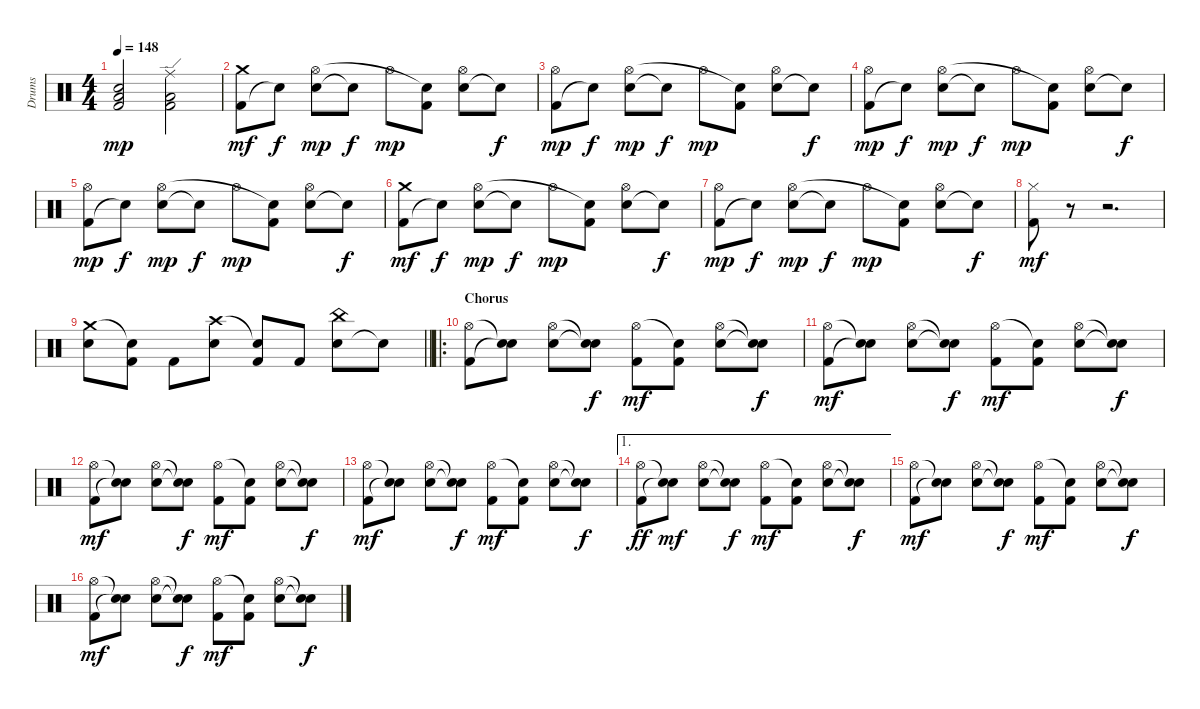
\track ("Drums" "Drums") {instrument percussion}
\staff {score}
\articulation defaults
\ts (4 4)
\tempo 148
\clef neutral
\ks c
("Kick (hit) 2" "Low Floor Tom (hit)" "Hand Clap (hit)").2{dy mp} ("Kick (hit) 2" "Low Floor Tom (hit)" "Ride (edge)").2 |
("Kick (hit) 2" "Crash medium (hit)").8{dy mf} "Snare (hit)"{t}.8{dy f} ("Snare (hit) 2" "Hi-Hat (open)").8{dy mp} "Snare (hit)"{t}.8{dy f} "Hi-Hat (open)".8{dy mp} ("Kick (hit) 2" "Snare (hit)"{t}).8 ("Snare (hit) 2" "Hi-Hat (open)").8 "Snare (hit)"{t}.8{dy f} |
("Kick (hit) 2" "Hi-Hat (open)").8{dy mp} "Snare (hit)"{t}.8{dy f} ("Snare (hit) 2" "Hi-Hat (open)").8{dy mp} "Snare (hit)"{t}.8{dy f} "Hi-Hat (open)".8{dy mp} ("Kick (hit) 2" "Snare (hit)"{t}).8 ("Snare (hit) 2" "Hi-Hat (open)").8 "Snare (hit)"{t}.8{dy f} |
("Kick (hit) 2" "Hi-Hat (open)").8{dy mp} "Snare (hit)"{t}.8{dy f} ("Snare (hit) 2" "Hi-Hat (open)").8{dy mp} "Snare (hit)"{t}.8{dy f} "Hi-Hat (open)".8{dy mp} ("Kick (hit) 2" "Snare (hit)"{t}).8 ("Snare (hit) 2" "Hi-Hat (open)").8 "Snare (hit)"{t}.8{dy f} |
("Kick (hit) 2" "Hi-Hat (open)").8{dy mp} "Snare (hit)"{t}.8{dy f} ("Snare (hit) 2" "Hi-Hat (open)").8{dy mp} "Snare (hit)"{t}.8{dy f} "Hi-Hat (open)".8{dy mp} ("Kick (hit) 2" "Snare (hit)"{t}).8 ("Snare (hit) 2" "Hi-Hat (open)").8 "Snare (hit)"{t}.8{dy f} |
("Kick (hit) 2" "Crash medium (hit)").8{dy mf} "Snare (hit)"{t}.8{dy f} ("Snare (hit) 2" "Hi-Hat (open)").8{dy mp} "Snare (hit)"{t}.8{dy f} "Hi-Hat (open)".8{dy mp} ("Kick (hit) 2" "Snare (hit)"{t}).8 ("Snare (hit) 2" "Hi-Hat (open)").8 "Snare (hit)"{t}.8{dy f} |
("Kick (hit) 2" "Hi-Hat (open)").8{dy mp} "Snare (hit)"{t}.8{dy f} ("Snare (hit) 2" "Hi-Hat (open)").8{dy mp} "Snare (hit)"{t}.8{dy f} "Hi-Hat (open)".8{dy mp} ("Kick (hit) 2" "Snare (hit)"{t}).8 ("Snare (hit) 2" "Hi-Hat (open)").8 "Snare (hit)"{t}.8{dy f} |
("Kick (hit) 2" "Hi-Hat (closed)").8{dy mf} r.8 r.2{d} |
\barLineRight lightlight
("Snare (hit) 2" "Crash medium (hit)").8 ("Kick (hit) 2" "Snare (hit)"{t}).8 "Kick (hit) 2".8 ("Snare (hit) 2" "Crash high (hit)").8 ("Kick (hit) 2" "Snare (hit)"{t}).8 "Kick (hit) 2".8 ("Snare (hit) 2" "China (hit)").8 "Snare (hit)"{t}.8 |
\ro
\section ("" "Chorus")
("Kick (hit) 2" "Hi-Hat (open)").8 ("Snare (hit)"{t} "Snare (hit)"{t}).8 ("Snare (hit) 2" "Hi-Hat (open)").8 ("Snare (hit)"{t} "Snare (hit)"{t}).8{dy f} ("Kick (hit) 2" "Hi-Hat (open)").8{dy mf} ("Kick (hit) 2" "Snare (hit)"{t}).8 ("Snare (hit) 2" "Hi-Hat (open)").8 ("Snare (hit)"{t} "Snare (hit)"{t}).8{dy f} |
("Kick (hit) 2" "Hi-Hat (open)").8{dy mf} ("Snare (hit)"{t} "Snare (hit)"{t}).8 ("Snare (hit) 2" "Hi-Hat (open)").8 ("Snare (hit)"{t} "Snare (hit)"{t}).8{dy f} ("Kick (hit) 2" "Hi-Hat (open)").8{dy mf} ("Kick (hit) 2" "Snare (hit)"{t}).8 ("Snare (hit) 2" "Hi-Hat (open)").8 ("Snare (hit)"{t} "Snare (hit)"{t}).8{dy f} |
("Kick (hit) 2" "Hi-Hat (open)").8{dy mf} ("Snare (hit)"{t} "Snare (hit)"{t}).8 ("Snare (hit) 2" "Hi-Hat (open)").8 ("Snare (hit)"{t} "Snare (hit)"{t}).8{dy f} ("Kick (hit) 2" "Hi-Hat (open)").8{dy mf} ("Kick (hit) 2" "Snare (hit)"{t}).8 ("Snare (hit) 2" "Hi-Hat (open)").8 ("Snare (hit)"{t} "Snare (hit)"{t}).8{dy f} |
("Kick (hit) 2" "Hi-Hat (open)").8{dy mf} ("Snare (hit)"{t} "Snare (hit)"{t}).8 ("Snare (hit) 2" "Hi-Hat (open)").8 ("Snare (hit)"{t} "Snare (hit)"{t}).8{dy f} ("Kick (hit) 2" "Hi-Hat (open)").8{dy mf} ("Kick (hit) 2" "Snare (hit)"{t}).8 ("Snare (hit) 2" "Hi-Hat (open)").8 ("Snare (hit)"{t} "Snare (hit)"{t}).8{dy f} |
\ae 1
("Kick (hit) 2" "Hi-Hat (open)").8{dy ff} ("Snare (hit)"{t} "Snare (hit)"{t}).8{dy mf} ("Snare (hit) 2" "Hi-Hat (open)").8 ("Snare (hit)"{t} "Snare (hit)"{t}).8{dy f} ("Kick (hit) 2" "Hi-Hat (open)").8{dy mf} ("Kick (hit) 2" "Snare (hit)"{t}).8 ("Snare (hit) 2" "Hi-Hat (open)").8 ("Snare (hit)"{t} "Snare (hit)"{t}).8{dy f} |
("Kick (hit) 2" "Hi-Hat (open)").8{dy mf} ("Snare (hit)"{t} "Snare (hit)"{t}).8 ("Snare (hit) 2" "Hi-Hat (open)").8 ("Snare (hit)"{t} "Snare (hit)"{t}).8{dy f} ("Kick (hit) 2" "Hi-Hat (open)").8{dy mf} ("Kick (hit) 2" "Snare (hit)"{t}).8 ("Snare (hit) 2" "Hi-Hat (open)").8 ("Snare (hit)"{t} "Snare (hit)"{t}).8{dy f} |
("Kick (hit) 2" "Hi-Hat (open)").8{dy mf} ("Snare (hit)"{t} "Snare (hit)"{t}).8 ("Snare (hit) 2" "Hi-Hat (open)").8 ("Snare (hit)"{t} "Snare (hit)"{t}).8{dy f} ("Kick (hit) 2" "Hi-Hat (open)").8{dy mf} ("Kick (hit) 2" "Snare (hit)"{t}).8 ("Snare (hit) 2" "Hi-Hat (open)").8 ("Snare (hit)"{t} "Snare (hit)"{t}).8{dy f}
